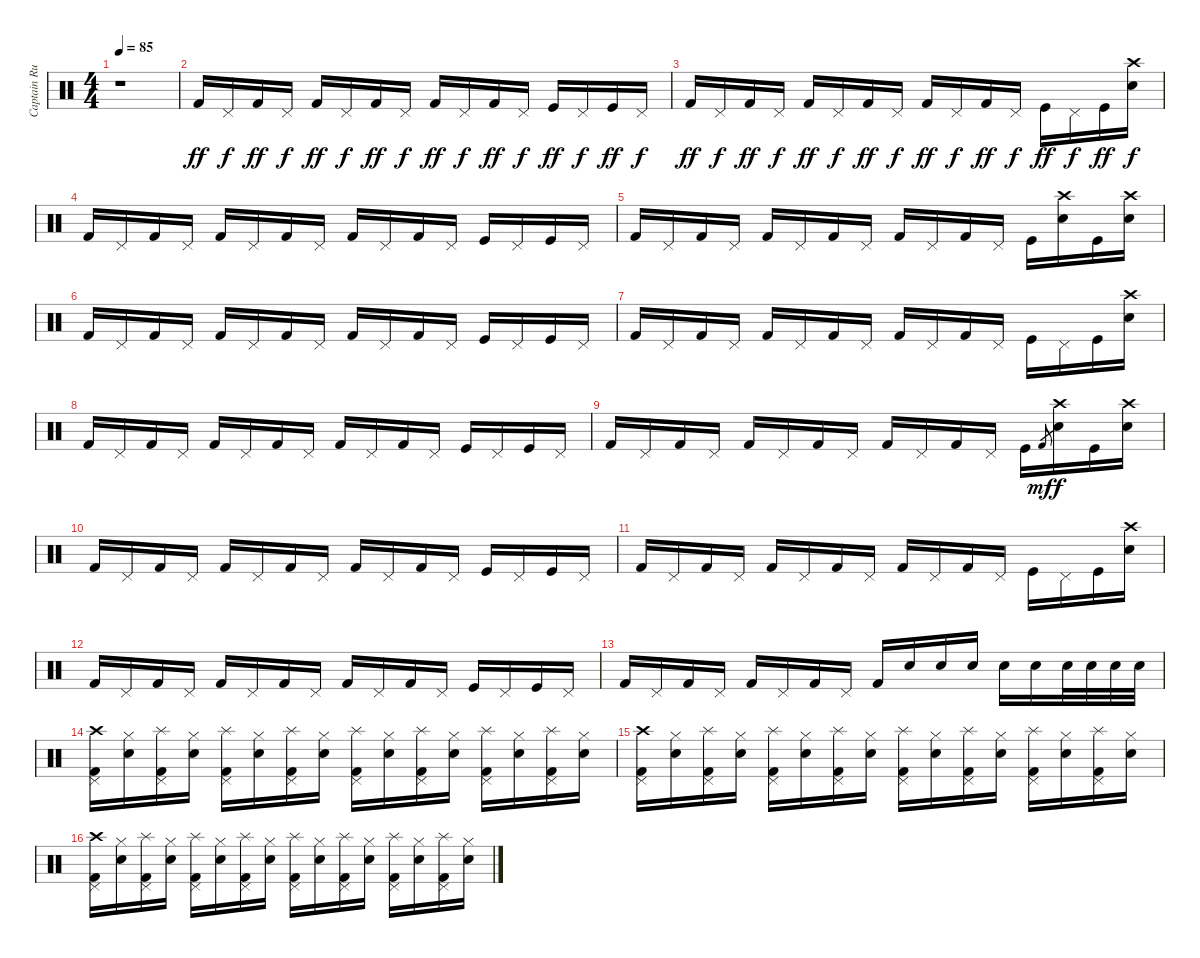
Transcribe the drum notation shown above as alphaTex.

\track ("Captain Rudabar/Rob Dog" "Captain Ru") {instrument percussion}
\staff {score}
\articulation defaults
\ts (4 4)
\tempo 85
\clef neutral
\ks c
r.1{dy ff} |
"Kick (hit) 2".16 "Pedal Hi-Hat (hit)".16{dy f} "Kick (hit) 2".16{dy ff} "Pedal Hi-Hat (hit)".16{dy f} "Kick (hit) 2".16{dy ff} "Pedal Hi-Hat (hit)".16{dy f} "Kick (hit) 2".16{dy ff} "Pedal Hi-Hat (hit)".16{dy f} "Kick (hit) 2".16{dy ff} "Pedal Hi-Hat (hit)".16{dy f} "Kick (hit) 2".16{dy ff} "Pedal Hi-Hat (hit)".16{dy f} "Kick (hit)".16{dy ff} "Pedal Hi-Hat (hit)".16{dy f} "Kick (hit)".16{dy ff} "Pedal Hi-Hat (hit)".16{dy f} |
"Kick (hit) 2".16{dy ff} "Pedal Hi-Hat (hit)".16{dy f} "Kick (hit) 2".16{dy ff} "Pedal Hi-Hat (hit)".16{dy f} "Kick (hit) 2".16{dy ff} "Pedal Hi-Hat (hit)".16{dy f} "Kick (hit) 2".16{dy ff} "Pedal Hi-Hat (hit)".16{dy f} "Kick (hit) 2".16{dy ff} "Pedal Hi-Hat (hit)".16{dy f} "Kick (hit) 2".16{dy ff} "Pedal Hi-Hat (hit)".16{dy f} "Kick (hit)".16{dy ff} "Pedal Hi-Hat (hit)".16{dy f} "Kick (hit)".16{dy ff} ("Crash high (hit)" "Electric Snare (hit)").16{dy f} |
"Kick (hit) 2".16 "Pedal Hi-Hat (hit)".16 "Kick (hit) 2".16 "Pedal Hi-Hat (hit)".16 "Kick (hit) 2".16 "Pedal Hi-Hat (hit)".16 "Kick (hit) 2".16 "Pedal Hi-Hat (hit)".16 "Kick (hit) 2".16 "Pedal Hi-Hat (hit)".16 "Kick (hit) 2".16 "Pedal Hi-Hat (hit)".16 "Kick (hit)".16 "Pedal Hi-Hat (hit)".16 "Kick (hit)".16 "Pedal Hi-Hat (hit)".16 |
"Kick (hit) 2".16 "Pedal Hi-Hat (hit)".16 "Kick (hit) 2".16 "Pedal Hi-Hat (hit)".16 "Kick (hit) 2".16 "Pedal Hi-Hat (hit)".16 "Kick (hit) 2".16 "Pedal Hi-Hat (hit)".16 "Kick (hit) 2".16 "Pedal Hi-Hat (hit)".16 "Kick (hit) 2".16 "Pedal Hi-Hat (hit)".16 "Kick (hit)".16 ("Crash high (hit)" "Electric Snare (hit)").16 "Kick (hit)".16 ("Crash high (hit)" "Electric Snare (hit)").16 |
"Kick (hit) 2".16 "Pedal Hi-Hat (hit)".16 "Kick (hit) 2".16 "Pedal Hi-Hat (hit)".16 "Kick (hit) 2".16 "Pedal Hi-Hat (hit)".16 "Kick (hit) 2".16 "Pedal Hi-Hat (hit)".16 "Kick (hit) 2".16 "Pedal Hi-Hat (hit)".16 "Kick (hit) 2".16 "Pedal Hi-Hat (hit)".16 "Kick (hit)".16 "Pedal Hi-Hat (hit)".16 "Kick (hit)".16 "Pedal Hi-Hat (hit)".16 |
"Kick (hit) 2".16 "Pedal Hi-Hat (hit)".16 "Kick (hit) 2".16 "Pedal Hi-Hat (hit)".16 "Kick (hit) 2".16 "Pedal Hi-Hat (hit)".16 "Kick (hit) 2".16 "Pedal Hi-Hat (hit)".16 "Kick (hit) 2".16 "Pedal Hi-Hat (hit)".16 "Kick (hit) 2".16 "Pedal Hi-Hat (hit)".16 "Kick (hit)".16 "Pedal Hi-Hat (hit)".16 "Kick (hit)".16 ("Crash high (hit)" "Electric Snare (hit)").16 |
"Kick (hit) 2".16 "Pedal Hi-Hat (hit)".16 "Kick (hit) 2".16 "Pedal Hi-Hat (hit)".16 "Kick (hit) 2".16 "Pedal Hi-Hat (hit)".16 "Kick (hit) 2".16 "Pedal Hi-Hat (hit)".16 "Kick (hit) 2".16 "Pedal Hi-Hat (hit)".16 "Kick (hit) 2".16 "Pedal Hi-Hat (hit)".16 "Kick (hit)".16 "Pedal Hi-Hat (hit)".16 "Kick (hit)".16 "Pedal Hi-Hat (hit)".16 |
"Kick (hit) 2".16 "Pedal Hi-Hat (hit)".16 "Kick (hit) 2".16 "Pedal Hi-Hat (hit)".16 "Kick (hit) 2".16 "Pedal Hi-Hat (hit)".16 "Kick (hit) 2".16 "Pedal Hi-Hat (hit)".16 "Kick (hit) 2".16 "Pedal Hi-Hat (hit)".16 "Kick (hit) 2".16 "Pedal Hi-Hat (hit)".16 "Kick (hit)".16 "Kick (hit) 2".8{gr dy mf} ("Crash high (hit)" "Electric Snare (hit)").16{dy f} "Kick (hit)".16 ("Crash high (hit)" "Electric Snare (hit)").16 |
"Kick (hit) 2".16 "Pedal Hi-Hat (hit)".16 "Kick (hit) 2".16 "Pedal Hi-Hat (hit)".16 "Kick (hit) 2".16 "Pedal Hi-Hat (hit)".16 "Kick (hit) 2".16 "Pedal Hi-Hat (hit)".16 "Kick (hit) 2".16 "Pedal Hi-Hat (hit)".16 "Kick (hit) 2".16 "Pedal Hi-Hat (hit)".16 "Kick (hit)".16 "Pedal Hi-Hat (hit)".16 "Kick (hit)".16 "Pedal Hi-Hat (hit)".16 |
"Kick (hit) 2".16 "Pedal Hi-Hat (hit)".16 "Kick (hit) 2".16 "Pedal Hi-Hat (hit)".16 "Kick (hit) 2".16 "Pedal Hi-Hat (hit)".16 "Kick (hit) 2".16 "Pedal Hi-Hat (hit)".16 "Kick (hit) 2".16 "Pedal Hi-Hat (hit)".16 "Kick (hit) 2".16 "Pedal Hi-Hat (hit)".16 "Kick (hit)".16 "Pedal Hi-Hat (hit)".16 "Kick (hit)".16 ("Crash high (hit)" "Electric Snare (hit)").16 |
"Kick (hit) 2".16 "Pedal Hi-Hat (hit)".16 "Kick (hit) 2".16 "Pedal Hi-Hat (hit)".16 "Kick (hit) 2".16 "Pedal Hi-Hat (hit)".16 "Kick (hit) 2".16 "Pedal Hi-Hat (hit)".16 "Kick (hit) 2".16 "Pedal Hi-Hat (hit)".16 "Kick (hit) 2".16 "Pedal Hi-Hat (hit)".16 "Kick (hit)".16 "Pedal Hi-Hat (hit)".16 "Kick (hit)".16 "Pedal Hi-Hat (hit)".16 |
"Kick (hit) 2".16 "Pedal Hi-Hat (hit)".16 "Kick (hit) 2".16 "Pedal Hi-Hat (hit)".16 "Kick (hit) 2".16 "Pedal Hi-Hat (hit)".16 "Kick (hit) 2".16 "Pedal Hi-Hat (hit)".16 "Kick (hit) 2".16 "Electric Snare (hit)".16 "Electric Snare (hit)".16 "Electric Snare (hit)".16 "Electric Snare (hit)".16 "Electric Snare (hit)".16 "Electric Snare (hit)".32 "Electric Snare (hit)".32 "Electric Snare (hit)".32 "Electric Snare (hit)".32 |
("Crash high (hit)" "Pedal Hi-Hat (hit)" "Kick (hit) 2").16 ("Hi-Hat (closed)" "Electric Snare (hit)").16 ("Splash (hit)" "Pedal Hi-Hat (hit)" "Kick (hit) 2").16 ("Hi-Hat (closed)" "Electric Snare (hit)").16 ("Splash (hit)" "Pedal Hi-Hat (hit)" "Kick (hit) 2").16 ("Hi-Hat (closed)" "Electric Snare (hit)").16 ("Splash (hit)" "Pedal Hi-Hat (hit)" "Kick (hit) 2").16 ("Hi-Hat (closed)" "Electric Snare (hit)").16 ("Splash (hit)" "Pedal Hi-Hat (hit)" "Kick (hit) 2").16 ("Hi-Hat (closed)" "Electric Snare (hit)").16 ("Splash (hit)" "Pedal Hi-Hat (hit)" "Kick (hit) 2").16 ("Hi-Hat (closed)" "Electric Snare (hit)").16 ("Splash (hit)" "Pedal Hi-Hat (hit)" "Kick (hit) 2").16 ("Hi-Hat (closed)" "Electric Snare (hit)").16 ("Splash (hit)" "Pedal Hi-Hat (hit)" "Kick (hit) 2").16 ("Hi-Hat (closed)" "Electric Snare (hit)").16 |
("Crash high (hit)" "Pedal Hi-Hat (hit)" "Kick (hit) 2").16 ("Hi-Hat (closed)" "Electric Snare (hit)").16 ("Splash (hit)" "Pedal Hi-Hat (hit)" "Kick (hit) 2").16 ("Hi-Hat (closed)" "Electric Snare (hit)").16 ("Splash (hit)" "Pedal Hi-Hat (hit)" "Kick (hit) 2").16 ("Hi-Hat (closed)" "Electric Snare (hit)").16 ("Splash (hit)" "Pedal Hi-Hat (hit)" "Kick (hit) 2").16 ("Hi-Hat (closed)" "Electric Snare (hit)").16 ("Splash (hit)" "Pedal Hi-Hat (hit)" "Kick (hit) 2").16 ("Hi-Hat (closed)" "Electric Snare (hit)").16 ("Splash (hit)" "Pedal Hi-Hat (hit)" "Kick (hit) 2").16 ("Hi-Hat (closed)" "Electric Snare (hit)").16 ("Splash (hit)" "Pedal Hi-Hat (hit)" "Kick (hit) 2").16 ("Hi-Hat (closed)" "Electric Snare (hit)").16 ("Splash (hit)" "Pedal Hi-Hat (hit)" "Kick (hit) 2").16 ("Hi-Hat (closed)" "Electric Snare (hit)").16 |
("Crash high (hit)" "Pedal Hi-Hat (hit)" "Kick (hit) 2").16 ("Hi-Hat (closed)" "Electric Snare (hit)").16 ("Splash (hit)" "Pedal Hi-Hat (hit)" "Kick (hit) 2").16 ("Hi-Hat (closed)" "Electric Snare (hit)").16 ("Splash (hit)" "Pedal Hi-Hat (hit)" "Kick (hit) 2").16 ("Hi-Hat (closed)" "Electric Snare (hit)").16 ("Splash (hit)" "Pedal Hi-Hat (hit)" "Kick (hit) 2").16 ("Hi-Hat (closed)" "Electric Snare (hit)").16 ("Splash (hit)" "Pedal Hi-Hat (hit)" "Kick (hit) 2").16 ("Hi-Hat (closed)" "Electric Snare (hit)").16 ("Splash (hit)" "Pedal Hi-Hat (hit)" "Kick (hit) 2").16 ("Hi-Hat (closed)" "Electric Snare (hit)").16 ("Splash (hit)" "Pedal Hi-Hat (hit)" "Kick (hit) 2").16 ("Hi-Hat (closed)" "Electric Snare (hit)").16 ("Splash (hit)" "Pedal Hi-Hat (hit)" "Kick (hit) 2").16 ("Hi-Hat (closed)" "Electric Snare (hit)").16
